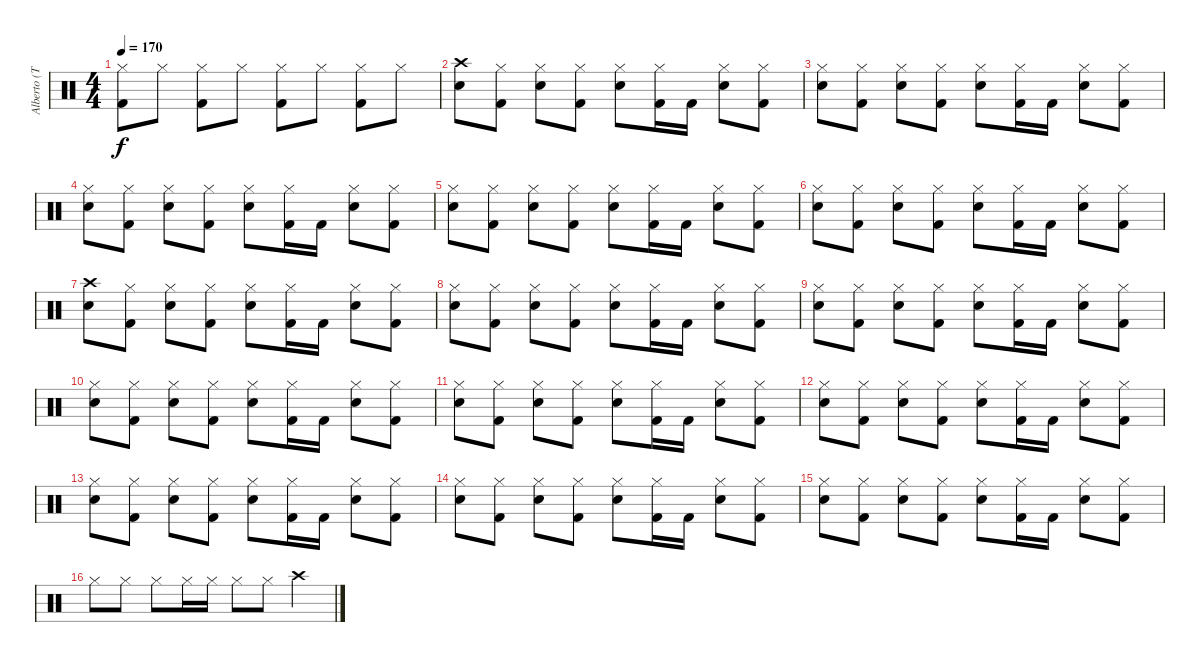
\track ("Alberto (Toshi)" "Alberto (T") {instrument percussion}
\staff {score}
\articulation defaults
\ts (4 4)
\tempo 170
\clef neutral
\ks c
("Hi-Hat (closed)" "Kick (hit) 2").8{dy f} "Hi-Hat (closed)".8 ("Hi-Hat (closed)" "Kick (hit) 2").8 "Hi-Hat (closed)".8 ("Hi-Hat (closed)" "Kick (hit) 2").8 "Hi-Hat (closed)".8 ("Hi-Hat (closed)" "Kick (hit) 2").8 "Hi-Hat (closed)".8 |
("Crash high (hit)" "Snare (hit) 2").8 ("Hi-Hat (closed)" "Kick (hit) 2").8 ("Hi-Hat (closed)" "Snare (hit) 2").8 ("Hi-Hat (closed)" "Kick (hit) 2").8 ("Hi-Hat (closed)" "Snare (hit) 2").8 ("Hi-Hat (closed)" "Kick (hit) 2").16 "Kick (hit) 2".16 ("Hi-Hat (closed)" "Snare (hit) 2").8 ("Hi-Hat (closed)" "Kick (hit) 2").8 |
("Hi-Hat (closed)" "Snare (hit) 2").8 ("Hi-Hat (closed)" "Kick (hit) 2").8 ("Hi-Hat (closed)" "Snare (hit) 2").8 ("Hi-Hat (closed)" "Kick (hit) 2").8 ("Hi-Hat (closed)" "Snare (hit) 2").8 ("Hi-Hat (closed)" "Kick (hit) 2").16 "Kick (hit) 2".16 ("Hi-Hat (closed)" "Snare (hit) 2").8 ("Hi-Hat (closed)" "Kick (hit) 2").8 |
("Hi-Hat (closed)" "Snare (hit) 2").8 ("Hi-Hat (closed)" "Kick (hit) 2").8 ("Hi-Hat (closed)" "Snare (hit) 2").8 ("Hi-Hat (closed)" "Kick (hit) 2").8 ("Hi-Hat (closed)" "Snare (hit) 2").8 ("Hi-Hat (closed)" "Kick (hit) 2").16 "Kick (hit) 2".16 ("Hi-Hat (closed)" "Snare (hit) 2").8 ("Hi-Hat (closed)" "Kick (hit) 2").8 |
("Hi-Hat (closed)" "Snare (hit) 2").8 ("Hi-Hat (closed)" "Kick (hit) 2").8 ("Hi-Hat (closed)" "Snare (hit) 2").8 ("Hi-Hat (closed)" "Kick (hit) 2").8 ("Hi-Hat (closed)" "Snare (hit) 2").8 ("Hi-Hat (closed)" "Kick (hit) 2").16 "Kick (hit) 2".16 ("Hi-Hat (closed)" "Snare (hit) 2").8 ("Hi-Hat (closed)" "Kick (hit) 2").8 |
("Hi-Hat (closed)" "Snare (hit) 2").8 ("Hi-Hat (closed)" "Kick (hit) 2").8 ("Hi-Hat (closed)" "Snare (hit) 2").8 ("Hi-Hat (closed)" "Kick (hit) 2").8 ("Hi-Hat (closed)" "Snare (hit) 2").8 ("Hi-Hat (closed)" "Kick (hit) 2").16 "Kick (hit) 2".16 ("Hi-Hat (closed)" "Snare (hit) 2").8 ("Hi-Hat (closed)" "Kick (hit) 2").8 |
("Crash high (hit)" "Snare (hit) 2").8 ("Hi-Hat (closed)" "Kick (hit) 2").8 ("Hi-Hat (closed)" "Snare (hit) 2").8 ("Hi-Hat (closed)" "Kick (hit) 2").8 ("Hi-Hat (closed)" "Snare (hit) 2").8 ("Hi-Hat (closed)" "Kick (hit) 2").16 "Kick (hit) 2".16 ("Hi-Hat (closed)" "Snare (hit) 2").8 ("Hi-Hat (closed)" "Kick (hit) 2").8 |
("Hi-Hat (closed)" "Snare (hit) 2").8 ("Hi-Hat (closed)" "Kick (hit) 2").8 ("Hi-Hat (closed)" "Snare (hit) 2").8 ("Hi-Hat (closed)" "Kick (hit) 2").8 ("Hi-Hat (closed)" "Snare (hit) 2").8 ("Hi-Hat (closed)" "Kick (hit) 2").16 "Kick (hit) 2".16 ("Hi-Hat (closed)" "Snare (hit) 2").8 ("Hi-Hat (closed)" "Kick (hit) 2").8 |
("Hi-Hat (closed)" "Snare (hit) 2").8 ("Hi-Hat (closed)" "Kick (hit) 2").8 ("Hi-Hat (closed)" "Snare (hit) 2").8 ("Hi-Hat (closed)" "Kick (hit) 2").8 ("Hi-Hat (closed)" "Snare (hit) 2").8 ("Hi-Hat (closed)" "Kick (hit) 2").16 "Kick (hit) 2".16 ("Hi-Hat (closed)" "Snare (hit) 2").8 ("Hi-Hat (closed)" "Kick (hit) 2").8 |
("Hi-Hat (closed)" "Snare (hit) 2").8 ("Hi-Hat (closed)" "Kick (hit) 2").8 ("Hi-Hat (closed)" "Snare (hit) 2").8 ("Hi-Hat (closed)" "Kick (hit) 2").8 ("Hi-Hat (closed)" "Snare (hit) 2").8 ("Hi-Hat (closed)" "Kick (hit) 2").16 "Kick (hit) 2".16 ("Hi-Hat (closed)" "Snare (hit) 2").8 ("Hi-Hat (closed)" "Kick (hit) 2").8 |
("Hi-Hat (closed)" "Snare (hit) 2").8 ("Hi-Hat (closed)" "Kick (hit) 2").8 ("Hi-Hat (closed)" "Snare (hit) 2").8 ("Hi-Hat (closed)" "Kick (hit) 2").8 ("Hi-Hat (closed)" "Snare (hit) 2").8 ("Hi-Hat (closed)" "Kick (hit) 2").16 "Kick (hit) 2".16 ("Hi-Hat (closed)" "Snare (hit) 2").8 ("Hi-Hat (closed)" "Kick (hit) 2").8 |
("Hi-Hat (closed)" "Snare (hit) 2").8 ("Hi-Hat (closed)" "Kick (hit) 2").8 ("Hi-Hat (closed)" "Snare (hit) 2").8 ("Hi-Hat (closed)" "Kick (hit) 2").8 ("Hi-Hat (closed)" "Snare (hit) 2").8 ("Hi-Hat (closed)" "Kick (hit) 2").16 "Kick (hit) 2".16 ("Hi-Hat (closed)" "Snare (hit) 2").8 ("Hi-Hat (closed)" "Kick (hit) 2").8 |
("Hi-Hat (closed)" "Snare (hit) 2").8 ("Hi-Hat (closed)" "Kick (hit) 2").8 ("Hi-Hat (closed)" "Snare (hit) 2").8 ("Hi-Hat (closed)" "Kick (hit) 2").8 ("Hi-Hat (closed)" "Snare (hit) 2").8 ("Hi-Hat (closed)" "Kick (hit) 2").16 "Kick (hit) 2".16 ("Hi-Hat (closed)" "Snare (hit) 2").8 ("Hi-Hat (closed)" "Kick (hit) 2").8 |
("Hi-Hat (closed)" "Snare (hit) 2").8 ("Hi-Hat (closed)" "Kick (hit) 2").8 ("Hi-Hat (closed)" "Snare (hit) 2").8 ("Hi-Hat (closed)" "Kick (hit) 2").8 ("Hi-Hat (closed)" "Snare (hit) 2").8 ("Hi-Hat (closed)" "Kick (hit) 2").16 "Kick (hit) 2".16 ("Hi-Hat (closed)" "Snare (hit) 2").8 ("Hi-Hat (closed)" "Kick (hit) 2").8 |
("Hi-Hat (closed)" "Snare (hit) 2").8 ("Hi-Hat (closed)" "Kick (hit) 2").8 ("Hi-Hat (closed)" "Snare (hit) 2").8 ("Hi-Hat (closed)" "Kick (hit) 2").8 ("Hi-Hat (closed)" "Snare (hit) 2").8 ("Hi-Hat (closed)" "Kick (hit) 2").16 "Kick (hit) 2".16 ("Hi-Hat (closed)" "Snare (hit) 2").8 ("Hi-Hat (closed)" "Kick (hit) 2").8 |
"Hi-Hat (closed)".8 "Hi-Hat (closed)".8 "Hi-Hat (closed)".8 "Hi-Hat (closed)".16 "Hi-Hat (closed)".16 "Hi-Hat (closed)".8 "Hi-Hat (closed)".8 "Crash high (hit)".4
